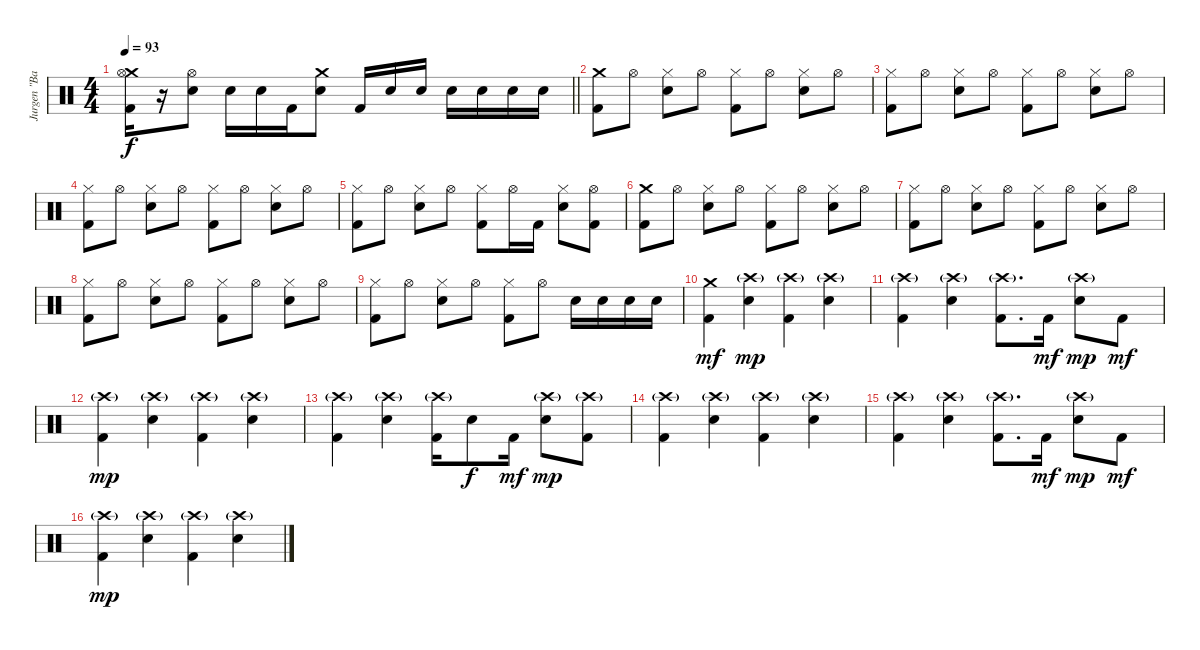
\track ("Jurgen \"Bam Bam\" Wiehler" "Jurgen \"Ba") {instrument percussion}
\staff {score}
\articulation defaults
\ts (4 4)
\tempo 93
\clef neutral
\barLineRight lightlight
\ks c
("Crash medium (hit)" "Hi-Hat (open)" "Kick (hit) 2").16{dy f} r.16 ("Hi-Hat (open)" "Snare (hit) 2").8 "Snare (hit) 2".16 "Snare (hit) 2".16 "Kick (hit) 2".16 ("Crash medium (hit)" "Snare (hit) 2").8 "Kick (hit) 2".16 "Snare (hit) 2".16 "Snare (hit) 2".16 "Snare (hit) 2".16 "Snare (hit) 2".16 "Snare (hit) 2".16 "Snare (hit) 2".16 |
("Crash medium (hit)" "Kick (hit) 2").8 "Hi-Hat (open)".8 ("Hi-Hat (closed)" "Electric Snare (hit)").8 "Hi-Hat (open)".8 ("Hi-Hat (closed)" "Kick (hit) 2").8 "Hi-Hat (open)".8 ("Hi-Hat (closed)" "Electric Snare (hit)").8 "Hi-Hat (open)".8 |
("Hi-Hat (closed)" "Kick (hit) 2").8 "Hi-Hat (open)".8 ("Hi-Hat (closed)" "Electric Snare (hit)").8 "Hi-Hat (open)".8 ("Hi-Hat (closed)" "Kick (hit) 2").8 "Hi-Hat (open)".8 ("Hi-Hat (closed)" "Electric Snare (hit)").8 "Hi-Hat (open)".8 |
("Hi-Hat (closed)" "Kick (hit) 2").8 "Hi-Hat (open)".8 ("Hi-Hat (closed)" "Electric Snare (hit)").8 "Hi-Hat (open)".8 ("Hi-Hat (closed)" "Kick (hit) 2").8 "Hi-Hat (open)".8 ("Hi-Hat (closed)" "Electric Snare (hit)").8 "Hi-Hat (open)".8 |
("Hi-Hat (closed)" "Kick (hit) 2").8 "Hi-Hat (open)".8 ("Hi-Hat (closed)" "Electric Snare (hit)").8 "Hi-Hat (open)".8 ("Hi-Hat (closed)" "Kick (hit) 2").8 "Hi-Hat (open)".16 "Kick (hit) 2".16 ("Hi-Hat (closed)" "Electric Snare (hit)").8 ("Hi-Hat (open)" "Kick (hit) 2").8 |
("Crash medium (hit)" "Kick (hit) 2").8 "Hi-Hat (open)".8 ("Hi-Hat (closed)" "Electric Snare (hit)").8 "Hi-Hat (open)".8 ("Hi-Hat (closed)" "Kick (hit) 2").8 "Hi-Hat (open)".8 ("Hi-Hat (closed)" "Electric Snare (hit)").8 "Hi-Hat (open)".8 |
("Hi-Hat (closed)" "Kick (hit) 2").8 "Hi-Hat (open)".8 ("Hi-Hat (closed)" "Electric Snare (hit)").8 "Hi-Hat (open)".8 ("Hi-Hat (closed)" "Kick (hit) 2").8 "Hi-Hat (open)".8 ("Hi-Hat (closed)" "Electric Snare (hit)").8 "Hi-Hat (open)".8 |
("Hi-Hat (closed)" "Kick (hit) 2").8 "Hi-Hat (open)".8 ("Hi-Hat (closed)" "Electric Snare (hit)").8 "Hi-Hat (open)".8 ("Hi-Hat (closed)" "Kick (hit) 2").8 "Hi-Hat (open)".8 ("Hi-Hat (closed)" "Electric Snare (hit)").8 "Hi-Hat (open)".8 |
("Hi-Hat (closed)" "Kick (hit) 2").8 "Hi-Hat (open)".8 ("Hi-Hat (closed)" "Electric Snare (hit)").8 "Hi-Hat (open)".8 ("Hi-Hat (closed)" "Kick (hit) 2").8 "Hi-Hat (open)".8 "Electric Snare (hit)".16 "Electric Snare (hit)".16 "Electric Snare (hit)".16 "Electric Snare (hit)".16 |
("Crash medium (hit)" "Kick (hit) 2").4{dy mf} ("Crash high (hit)"{g} "Electric Snare (hit)").4{dy mp} ("Crash high (hit)"{g} "Kick (hit) 2").4 ("Crash high (hit)"{g} "Electric Snare (hit)").4 |
("Crash high (hit)"{g} "Kick (hit) 2").4 ("Crash high (hit)"{g} "Electric Snare (hit)").4 ("Crash high (hit)"{g} "Kick (hit) 2").8{d} "Kick (hit) 2".16{dy mf} ("Crash high (hit)"{g} "Electric Snare (hit)").8{dy mp} "Kick (hit) 2".8{dy mf} |
("Crash high (hit)"{g} "Kick (hit) 2").4{dy mp} ("Crash high (hit)"{g} "Electric Snare (hit)").4 ("Crash high (hit)"{g} "Kick (hit) 2").4 ("Crash high (hit)"{g} "Electric Snare (hit)").4 |
("Crash high (hit)"{g} "Kick (hit) 2").4 ("Crash high (hit)"{g} "Electric Snare (hit)").4 ("Crash high (hit)"{g} "Kick (hit) 2").16 "Electric Snare (hit)".8{dy f} "Kick (hit) 2".16{dy mf} ("Crash high (hit)"{g} "Electric Snare (hit)").8{dy mp} ("Crash high (hit)"{g} "Kick (hit) 2").8 |
("Crash high (hit)"{g} "Kick (hit) 2").4 ("Crash high (hit)"{g} "Electric Snare (hit)").4 ("Crash high (hit)"{g} "Kick (hit) 2").4 ("Crash high (hit)"{g} "Electric Snare (hit)").4 |
("Crash high (hit)"{g} "Kick (hit) 2").4 ("Crash high (hit)"{g} "Electric Snare (hit)").4 ("Crash high (hit)"{g} "Kick (hit) 2").8{d} "Kick (hit) 2".16{dy mf} ("Crash high (hit)"{g} "Electric Snare (hit)").8{dy mp} "Kick (hit) 2".8{dy mf} |
("Crash high (hit)"{g} "Kick (hit) 2").4{dy mp} ("Crash high (hit)"{g} "Electric Snare (hit)").4 ("Crash high (hit)"{g} "Kick (hit) 2").4 ("Crash high (hit)"{g} "Electric Snare (hit)").4
